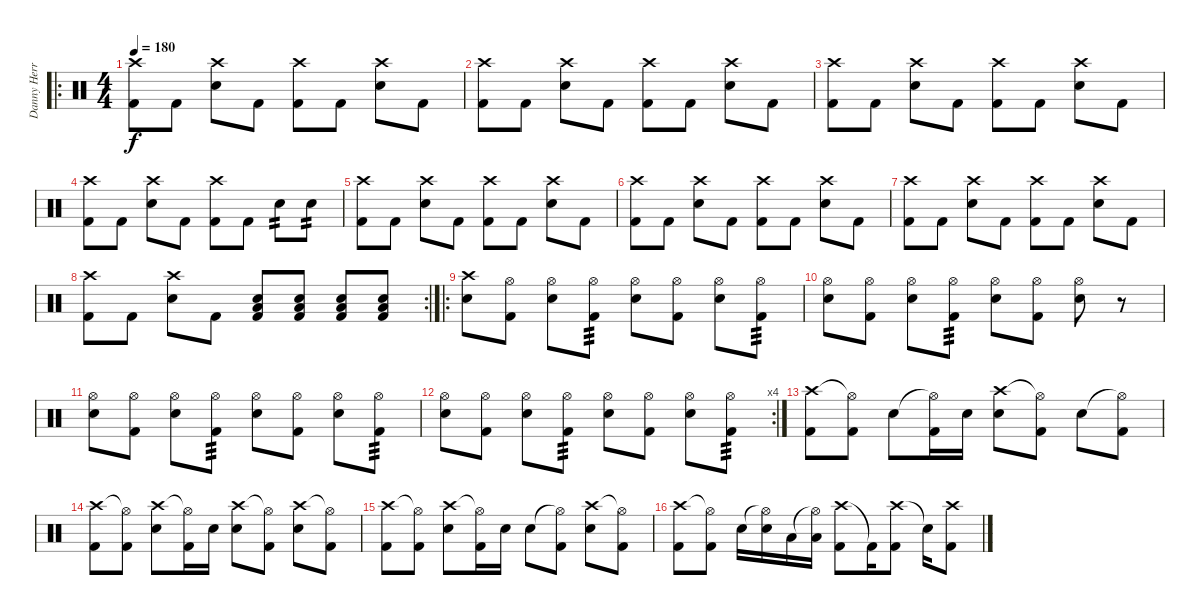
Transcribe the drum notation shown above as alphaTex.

\track ("Danny Herrera" "Danny Herr") {instrument percussion}
\staff {score}
\articulation defaults
\ro
\ts (4 4)
\tempo 180
\clef neutral
\ks c
("Crash high (hit)" "Kick (hit) 2").8{dy f} "Kick (hit) 2".8 ("Crash high (hit)" "Snare (hit) 2").8 "Kick (hit) 2".8 ("Crash high (hit)" "Kick (hit) 2").8 "Kick (hit) 2".8 ("Crash high (hit)" "Snare (hit) 2").8 "Kick (hit) 2".8 |
("Crash high (hit)" "Kick (hit) 2").8 "Kick (hit) 2".8 ("Crash high (hit)" "Snare (hit) 2").8 "Kick (hit) 2".8 ("Crash high (hit)" "Kick (hit) 2").8 "Kick (hit) 2".8 ("Crash high (hit)" "Snare (hit) 2").8 "Kick (hit) 2".8 |
("Crash high (hit)" "Kick (hit) 2").8 "Kick (hit) 2".8 ("Crash high (hit)" "Snare (hit) 2").8 "Kick (hit) 2".8 ("Crash high (hit)" "Kick (hit) 2").8 "Kick (hit) 2".8 ("Crash high (hit)" "Snare (hit) 2").8 "Kick (hit) 2".8 |
("Crash high (hit)" "Kick (hit) 2").8 "Kick (hit) 2".8 ("Crash high (hit)" "Snare (hit) 2").8 "Kick (hit) 2".8 ("Crash high (hit)" "Kick (hit) 2").8 "Kick (hit) 2".8 "Snare (hit) 2".8{tp 2} "Snare (hit) 2".8{tp 2} |
("Crash high (hit)" "Kick (hit) 2").8 "Kick (hit) 2".8 ("Crash high (hit)" "Snare (hit) 2").8 "Kick (hit) 2".8 ("Crash high (hit)" "Kick (hit) 2").8 "Kick (hit) 2".8 ("Crash high (hit)" "Snare (hit) 2").8 "Kick (hit) 2".8 |
("Crash high (hit)" "Kick (hit) 2").8 "Kick (hit) 2".8 ("Crash high (hit)" "Snare (hit) 2").8 "Kick (hit) 2".8 ("Crash high (hit)" "Kick (hit) 2").8 "Kick (hit) 2".8 ("Crash high (hit)" "Snare (hit) 2").8 "Kick (hit) 2".8 |
("Crash high (hit)" "Kick (hit) 2").8 "Kick (hit) 2".8 ("Crash high (hit)" "Snare (hit) 2").8 "Kick (hit) 2".8 ("Crash high (hit)" "Kick (hit) 2").8 "Kick (hit) 2".8 ("Crash high (hit)" "Snare (hit) 2").8 "Kick (hit) 2".8 |
\rc 2
("Crash high (hit)" "Kick (hit) 2").8 "Kick (hit) 2".8 ("Crash high (hit)" "Snare (hit) 2").8 "Kick (hit) 2".8 ("Low Floor Tom (hit)" "Snare (hit) 2" "Kick (hit) 2").8 ("Low Floor Tom (hit)" "Snare (hit) 2" "Kick (hit) 2").8 ("Low Floor Tom (hit)" "Snare (hit) 2" "Kick (hit) 2").8 ("Low Floor Tom (hit)" "Snare (hit) 2" "Kick (hit) 2").8 |
\ro
("Crash high (hit)" "Snare (hit) 2").8 ("Hi-Hat (open)" "Kick (hit) 2").8 ("Hi-Hat (open)" "Snare (hit) 2").8 ("Hi-Hat (open)" "Kick (hit) 2").8{tp 3} ("Hi-Hat (open)" "Snare (hit) 2").8 ("Hi-Hat (open)" "Kick (hit) 2").8 ("Hi-Hat (open)" "Snare (hit) 2").8 ("Hi-Hat (open)" "Kick (hit) 2").8{tp 3} |
("Hi-Hat (open)" "Snare (hit) 2").8 ("Hi-Hat (open)" "Kick (hit) 2").8 ("Hi-Hat (open)" "Snare (hit) 2").8 ("Hi-Hat (open)" "Kick (hit) 2").8{tp 3} ("Hi-Hat (open)" "Snare (hit) 2").8 ("Hi-Hat (open)" "Kick (hit) 2").8 ("Hi-Hat (open)" "Snare (hit) 2").8 r.8 |
("Hi-Hat (open)" "Snare (hit) 2").8 ("Hi-Hat (open)" "Kick (hit) 2").8 ("Hi-Hat (open)" "Snare (hit) 2").8 ("Hi-Hat (open)" "Kick (hit) 2").8{tp 3} ("Hi-Hat (open)" "Snare (hit) 2").8 ("Hi-Hat (open)" "Kick (hit) 2").8 ("Hi-Hat (open)" "Snare (hit) 2").8 ("Hi-Hat (open)" "Kick (hit) 2").8{tp 3} |
\rc 4
("Hi-Hat (open)" "Snare (hit) 2").8 ("Hi-Hat (open)" "Kick (hit) 2").8 ("Hi-Hat (open)" "Snare (hit) 2").8 ("Hi-Hat (open)" "Kick (hit) 2").8{tp 3} ("Hi-Hat (open)" "Snare (hit) 2").8 ("Hi-Hat (open)" "Kick (hit) 2").8 ("Hi-Hat (open)" "Snare (hit) 2").8 ("Hi-Hat (open)" "Kick (hit) 2").8{tp 3} |
("Crash high (hit)" "Kick (hit) 2").8 ("Hi-Hat (open)"{t} "Kick (hit) 2").8 "Snare (hit) 2".8 ("Hi-Hat (open)"{t} "Kick (hit) 2").16 "Snare (hit) 2".16 ("Crash high (hit)" "Snare (hit) 2").8 ("Hi-Hat (open)"{t} "Kick (hit) 2").8 "Snare (hit) 2".8 ("Hi-Hat (open)"{t} "Kick (hit) 2").8 |
("Crash high (hit)" "Kick (hit) 2").8 ("Hi-Hat (open)"{t} "Kick (hit) 2").8 ("Crash high (hit)" "Snare (hit) 2").8 ("Hi-Hat (open)"{t} "Kick (hit) 2").16 "Snare (hit) 2".16 ("Crash high (hit)" "Snare (hit) 2").8 ("Hi-Hat (open)"{t} "Kick (hit) 2").8 ("Crash high (hit)" "Snare (hit) 2").8 ("Hi-Hat (open)"{t} "Kick (hit) 2").8 |
("Crash high (hit)" "Kick (hit) 2").8 ("Hi-Hat (open)"{t} "Kick (hit) 2").8 ("Crash high (hit)" "Snare (hit) 2").8 ("Hi-Hat (open)"{t} "Kick (hit) 2").16 "Snare (hit) 2".16 "Snare (hit) 2".8 ("Hi-Hat (open)"{t} "Kick (hit) 2").8 ("Crash high (hit)" "Snare (hit) 2").8 ("Hi-Hat (open)"{t} "Kick (hit) 2").8 |
("Crash high (hit)" "Kick (hit) 2").8 ("Hi-Hat (open)"{t} "Kick (hit) 2").8 "Snare (hit) 2".16 ("Hi-Hat (open)"{t} "Snare (hit) 2").16 "Low Tom (hit)".16 ("Hi-Hat (open)"{t} "Low Tom (hit)").16 ("Crash high (hit)" "Kick (hit) 2").8 "Kick (hit) 2"{t}.16 ("Crash high (hit)" "Kick (hit) 2").8 "Snare (hit)"{t}.16 ("Crash high (hit)" "Kick (hit) 2").8
